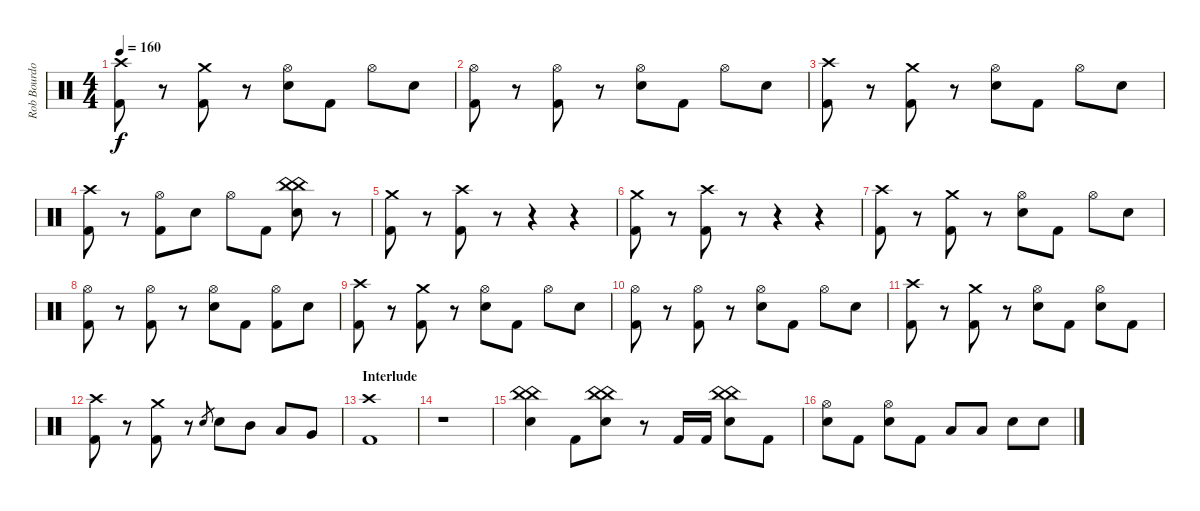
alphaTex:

\track ("Rob Bourdon (Drums)" "Rob Bourdo") {instrument percussion}
\staff {score}
\articulation defaults
\ts (4 4)
\tempo 160
\clef neutral
\ks c
("Crash high (hit)" "Kick (hit) 2").8{dy f} r.8 ("Crash medium (hit)" "Kick (hit) 2").8 r.8 ("Hi-Hat (open)" "Electric Snare (hit)").8 "Kick (hit) 2".8 "Hi-Hat (open)".8 "Electric Snare (hit)".8 |
("Hi-Hat (open)" "Kick (hit) 2").8 r.8 ("Hi-Hat (open)" "Kick (hit) 2").8 r.8 ("Hi-Hat (open)" "Electric Snare (hit)").8 "Kick (hit) 2".8 "Hi-Hat (open)".8 "Electric Snare (hit)".8 |
("Crash high (hit)" "Kick (hit) 2").8 r.8 ("Crash medium (hit)" "Kick (hit) 2").8 r.8 ("Hi-Hat (open)" "Electric Snare (hit)").8 "Kick (hit) 2".8 "Hi-Hat (open)".8 "Electric Snare (hit)".8 |
("Crash high (hit)" "Kick (hit) 2").8 r.8 ("Hi-Hat (open)" "Kick (hit) 2").8 "Electric Snare (hit)".8 "Hi-Hat (open)".8 "Kick (hit) 2".8 ("China (hit)" "China (hit)" "Electric Snare (hit)").8 r.8 |
("Crash medium (hit)" "Kick (hit) 2").8 r.8 ("Crash high (hit)" "Kick (hit) 2").8 r.8 r.4 r.4 |
("Crash medium (hit)" "Kick (hit) 2").8 r.8 ("Crash high (hit)" "Kick (hit) 2").8 r.8 r.4 r.4 |
("Crash high (hit)" "Kick (hit) 2").8 r.8 ("Crash medium (hit)" "Kick (hit) 2").8 r.8 ("Hi-Hat (open)" "Electric Snare (hit)").8 "Kick (hit) 2".8 "Hi-Hat (open)".8 "Electric Snare (hit)".8 |
("Hi-Hat (open)" "Kick (hit) 2").8 r.8 ("Hi-Hat (open)" "Kick (hit) 2").8 r.8 ("Hi-Hat (open)" "Electric Snare (hit)").8 "Kick (hit) 2".8 ("Hi-Hat (open)" "Kick (hit) 2").8 "Electric Snare (hit)".8 |
("Crash high (hit)" "Kick (hit) 2").8 r.8 ("Crash medium (hit)" "Kick (hit) 2").8 r.8 ("Hi-Hat (open)" "Electric Snare (hit)").8 "Kick (hit) 2".8 "Hi-Hat (open)".8 "Electric Snare (hit)".8 |
("Hi-Hat (open)" "Kick (hit) 2").8 r.8 ("Hi-Hat (open)" "Kick (hit) 2").8 r.8 ("Hi-Hat (open)" "Electric Snare (hit)").8 "Kick (hit) 2".8 "Hi-Hat (open)".8 "Electric Snare (hit)".8 |
("Crash high (hit)" "Kick (hit) 2").8 r.8 ("Crash medium (hit)" "Kick (hit) 2").8 r.8 ("Hi-Hat (open)" "Electric Snare (hit)").8 "Kick (hit) 2".8 ("Hi-Hat (open)" "Electric Snare (hit)").8 "Kick (hit) 2".8 |
("Crash high (hit)" "Kick (hit) 2").8 r.8 ("Crash medium (hit)" "Kick (hit) 2").8 r.8 "Electric Snare (hit)".8{gr} "Electric Snare (hit)".8 "Mid Tom (hit)".8 "Low Tom (hit)".8 "Very Low Tom (hit)".8 |
\section ("" "Interlude")
("Crash high (hit)" "Kick (hit) 2").1 |
r.1 |
("China (hit)" "China (hit)" "Electric Snare (hit)").4 "Kick (hit) 2".8 ("China (hit)" "China (hit)" "Electric Snare (hit)").8 r.8 "Kick (hit) 2".16 "Kick (hit) 2".16 ("China (hit)" "China (hit)" "Electric Snare (hit)").8 "Kick (hit) 2".8 |
("Hi-Hat (open)" "Electric Snare (hit)").8 "Kick (hit) 2".8 ("Hi-Hat (open)" "Electric Snare (hit)").8 "Kick (hit) 2".8 "Low Tom (hit)".8 "Low Tom (hit)".8 "Electric Snare (hit)".8 "Electric Snare (hit)".8
